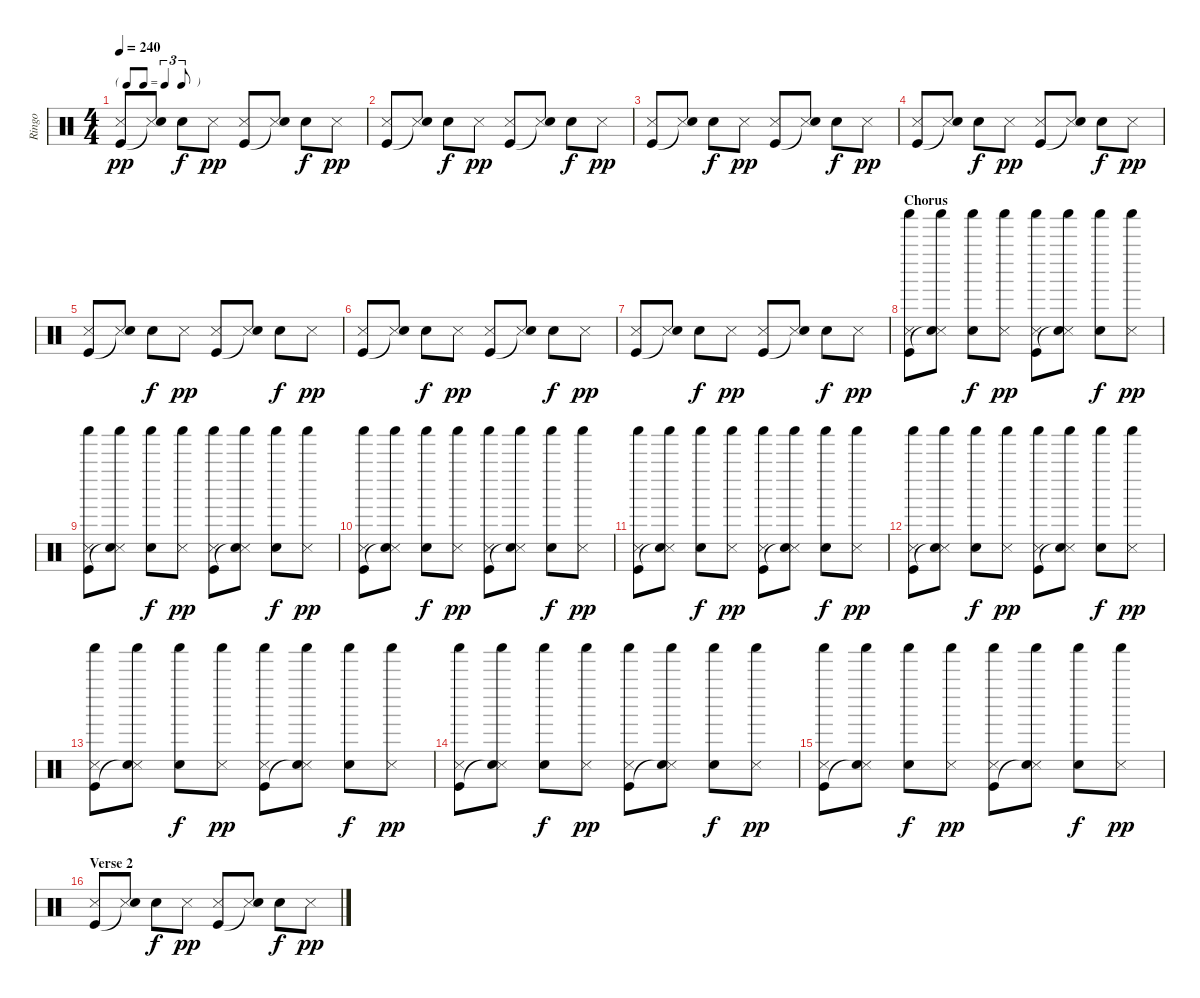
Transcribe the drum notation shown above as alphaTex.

\track ("Ringo" "Ringo") {instrument percussion}
\staff {score}
\articulation defaults
\ts (4 4)
\tf triplet8th
\tempo 240
\clef neutral
\ks c
("Snare (side stick) 3" "Kick (hit)").8{dy pp} ("Snare (side stick) 3" "Snare (hit)"{t}).8 "Snare (hit) 2".8{dy f} "Snare (side stick) 3".8{dy pp} ("Snare (side stick) 3" "Kick (hit)").8 ("Snare (side stick) 3" "Snare (hit)"{t}).8 "Snare (hit) 2".8{dy f} "Snare (side stick) 3".8{dy pp} |
("Snare (side stick) 3" "Kick (hit)").8 ("Snare (side stick) 3" "Snare (hit)"{t}).8 "Snare (hit) 2".8{dy f} "Snare (side stick) 3".8{dy pp} ("Snare (side stick) 3" "Kick (hit)").8 ("Snare (side stick) 3" "Snare (hit)"{t}).8 "Snare (hit) 2".8{dy f} "Snare (side stick) 3".8{dy pp} |
("Snare (side stick) 3" "Kick (hit)").8 ("Snare (side stick) 3" "Snare (hit)"{t}).8 "Snare (hit) 2".8{dy f} "Snare (side stick) 3".8{dy pp} ("Snare (side stick) 3" "Kick (hit)").8 ("Snare (side stick) 3" "Snare (hit)"{t}).8 "Snare (hit) 2".8{dy f} "Snare (side stick) 3".8{dy pp} |
("Snare (side stick) 3" "Kick (hit)").8 ("Snare (side stick) 3" "Snare (hit)"{t}).8 "Snare (hit) 2".8{dy f} "Snare (side stick) 3".8{dy pp} ("Snare (side stick) 3" "Kick (hit)").8 ("Snare (side stick) 3" "Snare (hit)"{t}).8 "Snare (hit) 2".8{dy f} "Snare (side stick) 3".8{dy pp} |
("Snare (side stick) 3" "Kick (hit)").8 ("Snare (side stick) 3" "Snare (hit)"{t}).8 "Snare (hit) 2".8{dy f} "Snare (side stick) 3".8{dy pp} ("Snare (side stick) 3" "Kick (hit)").8 ("Snare (side stick) 3" "Snare (hit)"{t}).8 "Snare (hit) 2".8{dy f} "Snare (side stick) 3".8{dy pp} |
("Snare (side stick) 3" "Kick (hit)").8 ("Snare (side stick) 3" "Snare (hit)"{t}).8 "Snare (hit) 2".8{dy f} "Snare (side stick) 3".8{dy pp} ("Snare (side stick) 3" "Kick (hit)").8 ("Snare (side stick) 3" "Snare (hit)"{t}).8 "Snare (hit) 2".8{dy f} "Snare (side stick) 3".8{dy pp} |
("Snare (side stick) 3" "Kick (hit)").8 ("Snare (side stick) 3" "Snare (hit)"{t}).8 "Snare (hit) 2".8{dy f} "Snare (side stick) 3".8{dy pp} ("Snare (side stick) 3" "Kick (hit)").8 ("Snare (side stick) 3" "Snare (hit)"{t}).8 "Snare (hit) 2".8{dy f} "Snare (side stick) 3".8{dy pp} |
\section ("" "Chorus ")
("Shaker (hit)" "Snare (side stick) 3" "Kick (hit)").8 ("Shaker (hit)" "Snare (side stick) 3" "Snare (hit)"{t}).8 ("Shaker (hit)" "Snare (hit) 2").8{dy f} ("Shaker (hit)" "Snare (side stick) 3").8{dy pp} ("Shaker (hit)" "Snare (side stick) 3" "Kick (hit)").8 ("Shaker (hit)" "Snare (side stick) 3" "Snare (hit)"{t}).8 ("Shaker (hit)" "Snare (hit) 2").8{dy f} ("Shaker (hit)" "Snare (side stick) 3").8{dy pp} |
("Shaker (hit)" "Snare (side stick) 3" "Kick (hit)").8 ("Shaker (hit)" "Snare (side stick) 3" "Snare (hit)"{t}).8 ("Shaker (hit)" "Snare (hit) 2").8{dy f} ("Shaker (hit)" "Snare (side stick) 3").8{dy pp} ("Shaker (hit)" "Snare (side stick) 3" "Kick (hit)").8 ("Shaker (hit)" "Snare (side stick) 3" "Snare (hit)"{t}).8 ("Shaker (hit)" "Snare (hit) 2").8{dy f} ("Shaker (hit)" "Snare (side stick) 3").8{dy pp} |
("Shaker (hit)" "Snare (side stick) 3" "Kick (hit)").8 ("Shaker (hit)" "Snare (side stick) 3" "Snare (hit)"{t}).8 ("Shaker (hit)" "Snare (hit) 2").8{dy f} ("Shaker (hit)" "Snare (side stick) 3").8{dy pp} ("Shaker (hit)" "Snare (side stick) 3" "Kick (hit)").8 ("Shaker (hit)" "Snare (side stick) 3" "Snare (hit)"{t}).8 ("Shaker (hit)" "Snare (hit) 2").8{dy f} ("Shaker (hit)" "Snare (side stick) 3").8{dy pp} |
("Shaker (hit)" "Snare (side stick) 3" "Kick (hit)").8 ("Shaker (hit)" "Snare (side stick) 3" "Snare (hit)"{t}).8 ("Shaker (hit)" "Snare (hit) 2").8{dy f} ("Shaker (hit)" "Snare (side stick) 3").8{dy pp} ("Shaker (hit)" "Snare (side stick) 3" "Kick (hit)").8 ("Shaker (hit)" "Snare (side stick) 3" "Snare (hit)"{t}).8 ("Shaker (hit)" "Snare (hit) 2").8{dy f} ("Shaker (hit)" "Snare (side stick) 3").8{dy pp} |
("Shaker (hit)" "Snare (side stick) 3" "Kick (hit)").8 ("Shaker (hit)" "Snare (side stick) 3" "Snare (hit)"{t}).8 ("Shaker (hit)" "Snare (hit) 2").8{dy f} ("Shaker (hit)" "Snare (side stick) 3").8{dy pp} ("Shaker (hit)" "Snare (side stick) 3" "Kick (hit)").8 ("Shaker (hit)" "Snare (side stick) 3" "Snare (hit)"{t}).8 ("Shaker (hit)" "Snare (hit) 2").8{dy f} ("Shaker (hit)" "Snare (side stick) 3").8{dy pp} |
("Shaker (hit)" "Snare (side stick) 3" "Kick (hit)").8 ("Shaker (hit)" "Snare (side stick) 3" "Snare (hit)"{t}).8 ("Shaker (hit)" "Snare (hit) 2").8{dy f} ("Shaker (hit)" "Snare (side stick) 3").8{dy pp} ("Shaker (hit)" "Snare (side stick) 3" "Kick (hit)").8 ("Shaker (hit)" "Snare (side stick) 3" "Snare (hit)"{t}).8 ("Shaker (hit)" "Snare (hit) 2").8{dy f} ("Shaker (hit)" "Snare (side stick) 3").8{dy pp} |
("Shaker (hit)" "Snare (side stick) 3" "Kick (hit)").8 ("Shaker (hit)" "Snare (side stick) 3" "Snare (hit)"{t}).8 ("Shaker (hit)" "Snare (hit) 2").8{dy f} ("Shaker (hit)" "Snare (side stick) 3").8{dy pp} ("Shaker (hit)" "Snare (side stick) 3" "Kick (hit)").8 ("Shaker (hit)" "Snare (side stick) 3" "Snare (hit)"{t}).8 ("Shaker (hit)" "Snare (hit) 2").8{dy f} ("Shaker (hit)" "Snare (side stick) 3").8{dy pp} |
("Shaker (hit)" "Snare (side stick) 3" "Kick (hit)").8 ("Shaker (hit)" "Snare (side stick) 3" "Snare (hit)"{t}).8 ("Shaker (hit)" "Snare (hit) 2").8{dy f} ("Shaker (hit)" "Snare (side stick) 3").8{dy pp} ("Shaker (hit)" "Snare (side stick) 3" "Kick (hit)").8 ("Shaker (hit)" "Snare (side stick) 3" "Snare (hit)"{t}).8 ("Shaker (hit)" "Snare (hit) 2").8{dy f} ("Shaker (hit)" "Snare (side stick) 3").8{dy pp} |
\section ("" "Verse 2")
("Snare (side stick) 3" "Kick (hit)").8 ("Snare (side stick) 3" "Snare (hit)"{t}).8 "Snare (hit) 2".8{dy f} "Snare (side stick) 3".8{dy pp} ("Snare (side stick) 3" "Kick (hit)").8 ("Snare (side stick) 3" "Snare (hit)"{t}).8 "Snare (hit) 2".8{dy f} "Snare (side stick) 3".8{dy pp}
